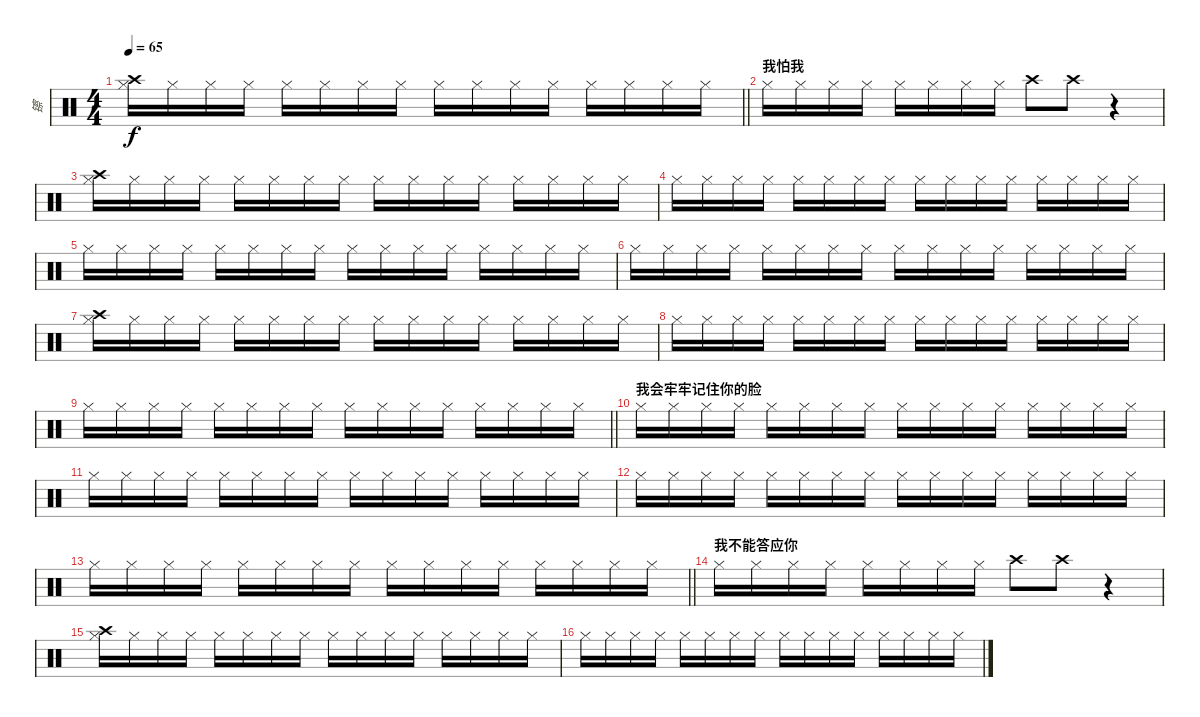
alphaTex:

\track ("镲" "镲") {instrument percussion}
\staff {score}
\articulation defaults
\ts (4 4)
\tempo 65
\clef neutral
\barLineRight lightlight
\ks c
("Crash high (hit)" "Hi-Hat (closed)").16{dy f} "Hi-Hat (closed)".16 "Hi-Hat (closed)".16 "Hi-Hat (closed)".16 "Hi-Hat (closed)".16 "Hi-Hat (closed)".16 "Hi-Hat (closed)".16 "Hi-Hat (closed)".16 "Hi-Hat (closed)".16 "Hi-Hat (closed)".16 "Hi-Hat (closed)".16 "Hi-Hat (closed)".16 "Hi-Hat (closed)".16 "Hi-Hat (closed)".16 "Hi-Hat (closed)".16 "Hi-Hat (closed)".16 |
\section ("" "我怕我")
"Hi-Hat (closed)".16 "Hi-Hat (closed)".16 "Hi-Hat (closed)".16 "Hi-Hat (closed)".16 "Hi-Hat (closed)".16 "Hi-Hat (closed)".16 "Hi-Hat (closed)".16 "Hi-Hat (closed)".16 "Crash high (hit)".8 "Crash high (hit)".8 r.4 |
("Crash high (hit)" "Hi-Hat (closed)").16 "Hi-Hat (closed)".16 "Hi-Hat (closed)".16 "Hi-Hat (closed)".16 "Hi-Hat (closed)".16 "Hi-Hat (closed)".16 "Hi-Hat (closed)".16 "Hi-Hat (closed)".16 "Hi-Hat (closed)".16 "Hi-Hat (closed)".16 "Hi-Hat (closed)".16 "Hi-Hat (closed)".16 "Hi-Hat (closed)".16 "Hi-Hat (closed)".16 "Hi-Hat (closed)".16 "Hi-Hat (closed)".16 |
"Hi-Hat (closed)".16 "Hi-Hat (closed)".16 "Hi-Hat (closed)".16 "Hi-Hat (closed)".16 "Hi-Hat (closed)".16 "Hi-Hat (closed)".16 "Hi-Hat (closed)".16 "Hi-Hat (closed)".16 "Hi-Hat (closed)".16 "Hi-Hat (closed)".16 "Hi-Hat (closed)".16 "Hi-Hat (closed)".16 "Hi-Hat (closed)".16 "Hi-Hat (closed)".16 "Hi-Hat (closed)".16 "Hi-Hat (closed)".16 |
"Hi-Hat (closed)".16 "Hi-Hat (closed)".16 "Hi-Hat (closed)".16 "Hi-Hat (closed)".16 "Hi-Hat (closed)".16 "Hi-Hat (closed)".16 "Hi-Hat (closed)".16 "Hi-Hat (closed)".16 "Hi-Hat (closed)".16 "Hi-Hat (closed)".16 "Hi-Hat (closed)".16 "Hi-Hat (closed)".16 "Hi-Hat (closed)".16 "Hi-Hat (closed)".16 "Hi-Hat (closed)".16 "Hi-Hat (closed)".16 |
"Hi-Hat (closed)".16 "Hi-Hat (closed)".16 "Hi-Hat (closed)".16 "Hi-Hat (closed)".16 "Hi-Hat (closed)".16 "Hi-Hat (closed)".16 "Hi-Hat (closed)".16 "Hi-Hat (closed)".16 "Hi-Hat (closed)".16 "Hi-Hat (closed)".16 "Hi-Hat (closed)".16 "Hi-Hat (closed)".16 "Hi-Hat (closed)".16 "Hi-Hat (closed)".16 "Hi-Hat (closed)".16 "Hi-Hat (closed)".16 |
("Crash high (hit)" "Hi-Hat (closed)").16 "Hi-Hat (closed)".16 "Hi-Hat (closed)".16 "Hi-Hat (closed)".16 "Hi-Hat (closed)".16 "Hi-Hat (closed)".16 "Hi-Hat (closed)".16 "Hi-Hat (closed)".16 "Hi-Hat (closed)".16 "Hi-Hat (closed)".16 "Hi-Hat (closed)".16 "Hi-Hat (closed)".16 "Hi-Hat (closed)".16 "Hi-Hat (closed)".16 "Hi-Hat (closed)".16 "Hi-Hat (closed)".16 |
"Hi-Hat (closed)".16 "Hi-Hat (closed)".16 "Hi-Hat (closed)".16 "Hi-Hat (closed)".16 "Hi-Hat (closed)".16 "Hi-Hat (closed)".16 "Hi-Hat (closed)".16 "Hi-Hat (closed)".16 "Hi-Hat (closed)".16 "Hi-Hat (closed)".16 "Hi-Hat (closed)".16 "Hi-Hat (closed)".16 "Hi-Hat (closed)".16 "Hi-Hat (closed)".16 "Hi-Hat (closed)".16 "Hi-Hat (closed)".16 |
\barLineRight lightlight "Hi-Hat (closed)".16 "Hi-Hat (closed)".16 "Hi-Hat (closed)".16 "Hi-Hat (closed)".16 "Hi-Hat (closed)".16 "Hi-Hat (closed)".16 "Hi-Hat (closed)".16 "Hi-Hat (closed)".16 "Hi-Hat (closed)".16 "Hi-Hat (closed)".16 "Hi-Hat (closed)".16 "Hi-Hat (closed)".16 "Hi-Hat (closed)".16 "Hi-Hat (closed)".16 "Hi-Hat (closed)".16 "Hi-Hat (closed)".16
|
\section ("" "我会牢牢记住你的脸")
"Hi-Hat (closed)".16 "Hi-Hat (closed)".16 "Hi-Hat (closed)".16 "Hi-Hat (closed)".16 "Hi-Hat (closed)".16 "Hi-Hat (closed)".16 "Hi-Hat (closed)".16 "Hi-Hat (closed)".16 "Hi-Hat (closed)".16 "Hi-Hat (closed)".16 "Hi-Hat (closed)".16 "Hi-Hat (closed)".16 "Hi-Hat (closed)".16 "Hi-Hat (closed)".16 "Hi-Hat (closed)".16 "Hi-Hat (closed)".16 |
"Hi-Hat (closed)".16 "Hi-Hat (closed)".16 "Hi-Hat (closed)".16 "Hi-Hat (closed)".16 "Hi-Hat (closed)".16 "Hi-Hat (closed)".16 "Hi-Hat (closed)".16 "Hi-Hat (closed)".16 "Hi-Hat (closed)".16 "Hi-Hat (closed)".16 "Hi-Hat (closed)".16 "Hi-Hat (closed)".16 "Hi-Hat (closed)".16 "Hi-Hat (closed)".16 "Hi-Hat (closed)".16 "Hi-Hat (closed)".16 |
"Hi-Hat (closed)".16 "Hi-Hat (closed)".16 "Hi-Hat (closed)".16 "Hi-Hat (closed)".16 "Hi-Hat (closed)".16 "Hi-Hat (closed)".16 "Hi-Hat (closed)".16 "Hi-Hat (closed)".16 "Hi-Hat (closed)".16 "Hi-Hat (closed)".16 "Hi-Hat (closed)".16 "Hi-Hat (closed)".16 "Hi-Hat (closed)".16 "Hi-Hat (closed)".16 "Hi-Hat (closed)".16 "Hi-Hat (closed)".16 |
\barLineRight lightlight "Hi-Hat (closed)".16 "Hi-Hat (closed)".16 "Hi-Hat (closed)".16 "Hi-Hat (closed)".16 "Hi-Hat (closed)".16 "Hi-Hat (closed)".16 "Hi-Hat (closed)".16 "Hi-Hat (closed)".16 "Hi-Hat (closed)".16 "Hi-Hat (closed)".16 "Hi-Hat (closed)".16 "Hi-Hat (closed)".16 "Hi-Hat (closed)".16 "Hi-Hat (closed)".16 "Hi-Hat (closed)".16 "Hi-Hat (closed)".16
|
\section ("" "我不能答应你")
"Hi-Hat (closed)".16 "Hi-Hat (closed)".16 "Hi-Hat (closed)".16 "Hi-Hat (closed)".16 "Hi-Hat (closed)".16 "Hi-Hat (closed)".16 "Hi-Hat (closed)".16 "Hi-Hat (closed)".16 "Crash high (hit)".8 "Crash high (hit)".8 r.4 |
("Crash high (hit)" "Hi-Hat (closed)").16 "Hi-Hat (closed)".16 "Hi-Hat (closed)".16 "Hi-Hat (closed)".16 "Hi-Hat (closed)".16 "Hi-Hat (closed)".16 "Hi-Hat (closed)".16 "Hi-Hat (closed)".16 "Hi-Hat (closed)".16 "Hi-Hat (closed)".16 "Hi-Hat (closed)".16 "Hi-Hat (closed)".16 "Hi-Hat (closed)".16 "Hi-Hat (closed)".16 "Hi-Hat (closed)".16 "Hi-Hat (closed)".16 |
"Hi-Hat (closed)".16 "Hi-Hat (closed)".16 "Hi-Hat (closed)".16 "Hi-Hat (closed)".16 "Hi-Hat (closed)".16 "Hi-Hat (closed)".16 "Hi-Hat (closed)".16 "Hi-Hat (closed)".16 "Hi-Hat (closed)".16 "Hi-Hat (closed)".16 "Hi-Hat (closed)".16 "Hi-Hat (closed)".16 "Hi-Hat (closed)".16 "Hi-Hat (closed)".16 "Hi-Hat (closed)".16 "Hi-Hat (closed)".16
